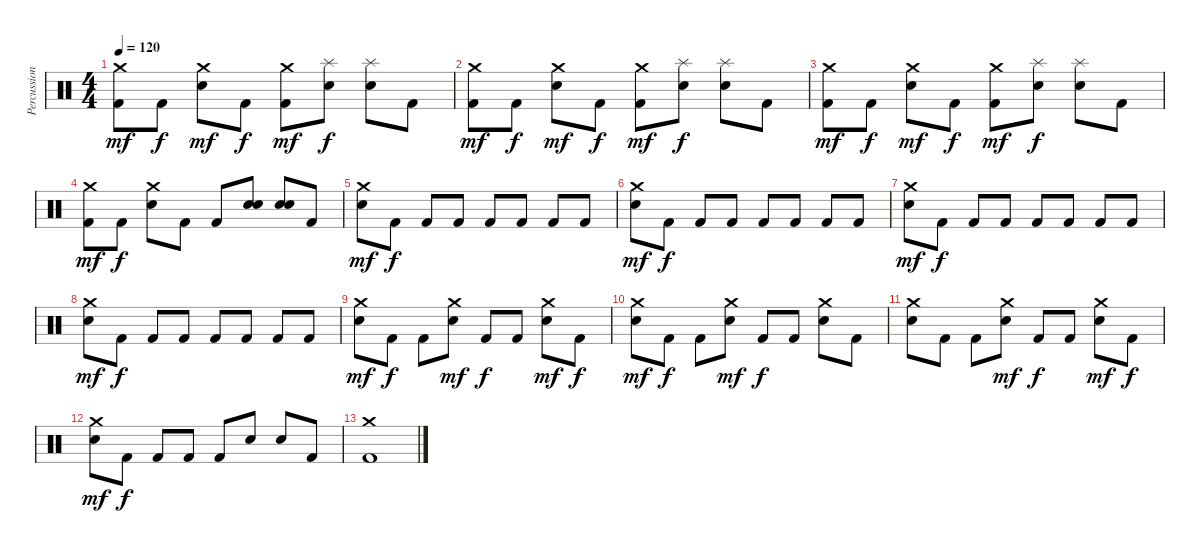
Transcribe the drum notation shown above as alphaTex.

\track ("Percussion" "Percussion") {instrument percussion}
\staff {score}
\articulation defaults
\ts (4 4)
\tempo 120
\clef neutral
\ks c
("Crash medium (hit)" "Kick (hit) 2").8{dy mf} "Kick (hit) 2".8{dy f} ("Crash medium (hit)" "Electric Snare (hit)").8{dy mf} "Kick (hit) 2".8{dy f} ("Crash medium (hit)" "Kick (hit) 2").8{dy mf} ("Splash (hit)" "Electric Snare (hit)").8{dy f} ("Splash (hit)" "Electric Snare (hit)").8 "Kick (hit) 2".8 |
("Crash medium (hit)" "Kick (hit) 2").8{dy mf} "Kick (hit) 2".8{dy f} ("Crash medium (hit)" "Electric Snare (hit)").8{dy mf} "Kick (hit) 2".8{dy f} ("Crash medium (hit)" "Kick (hit) 2").8{dy mf} ("Splash (hit)" "Electric Snare (hit)").8{dy f} ("Splash (hit)" "Electric Snare (hit)").8 "Kick (hit) 2".8 |
("Crash medium (hit)" "Kick (hit) 2").8{dy mf} "Kick (hit) 2".8{dy f} ("Crash medium (hit)" "Electric Snare (hit)").8{dy mf} "Kick (hit) 2".8{dy f} ("Crash medium (hit)" "Kick (hit) 2").8{dy mf} ("Splash (hit)" "Electric Snare (hit)").8{dy f} ("Splash (hit)" "Electric Snare (hit)").8 "Kick (hit) 2".8 |
("Crash medium (hit)" "Kick (hit) 2").8{dy mf} "Kick (hit) 2".8{dy f} ("Crash medium (hit)" "Electric Snare (hit)").8 "Kick (hit) 2".8 "Kick (hit) 2".8 ("Electric Snare (hit)" "Electric Snare (hit)").8 ("Electric Snare (hit)" "Electric Snare (hit)").8 "Kick (hit) 2".8 |
("Crash medium (hit)" "Electric Snare (hit)").8{dy mf} "Kick (hit) 2".8{dy f} "Kick (hit) 2".8 "Kick (hit) 2".8 "Kick (hit) 2".8 "Kick (hit) 2".8 "Kick (hit) 2".8 "Kick (hit) 2".8 |
("Crash medium (hit)" "Electric Snare (hit)").8{dy mf} "Kick (hit) 2".8{dy f} "Kick (hit) 2".8 "Kick (hit) 2".8 "Kick (hit) 2".8 "Kick (hit) 2".8 "Kick (hit) 2".8 "Kick (hit) 2".8 |
("Crash medium (hit)" "Electric Snare (hit)").8{dy mf} "Kick (hit) 2".8{dy f} "Kick (hit) 2".8 "Kick (hit) 2".8 "Kick (hit) 2".8 "Kick (hit) 2".8 "Kick (hit) 2".8 "Kick (hit) 2".8 |
("Crash medium (hit)" "Electric Snare (hit)").8{dy mf} "Kick (hit) 2".8{dy f} "Kick (hit) 2".8 "Kick (hit) 2".8 "Kick (hit) 2".8 "Kick (hit) 2".8 "Kick (hit) 2".8 "Kick (hit) 2".8 |
("Crash medium (hit)" "Electric Snare (hit)").8{dy mf} "Kick (hit) 2".8{dy f} "Kick (hit) 2".8 ("Crash medium (hit)" "Electric Snare (hit)").8{dy mf} "Kick (hit) 2".8{dy f} "Kick (hit) 2".8 ("Crash medium (hit)" "Electric Snare (hit)").8{dy mf} "Kick (hit) 2".8{dy f} |
("Crash medium (hit)" "Electric Snare (hit)").8{dy mf} "Kick (hit) 2".8{dy f} "Kick (hit) 2".8 ("Crash medium (hit)" "Electric Snare (hit)").8{dy mf} "Kick (hit) 2".8{dy f} "Kick (hit) 2".8 ("Crash medium (hit)" "Electric Snare (hit)").8 "Kick (hit) 2".8 |
("Crash medium (hit)" "Electric Snare (hit)").8 "Kick (hit) 2".8 "Kick (hit) 2".8 ("Crash medium (hit)" "Electric Snare (hit)").8{dy mf} "Kick (hit) 2".8{dy f} "Kick (hit) 2".8 ("Crash medium (hit)" "Electric Snare (hit)").8{dy mf} "Kick (hit) 2".8{dy f} |
("Crash medium (hit)" "Electric Snare (hit)").8{dy mf} "Kick (hit) 2".8{dy f} "Kick (hit) 2".8 "Kick (hit) 2".8 "Kick (hit) 2".8 "Electric Snare (hit)".8 "Electric Snare (hit)".8 "Kick (hit) 2".8 |
("Crash medium (hit)" "Kick (hit) 2").1
